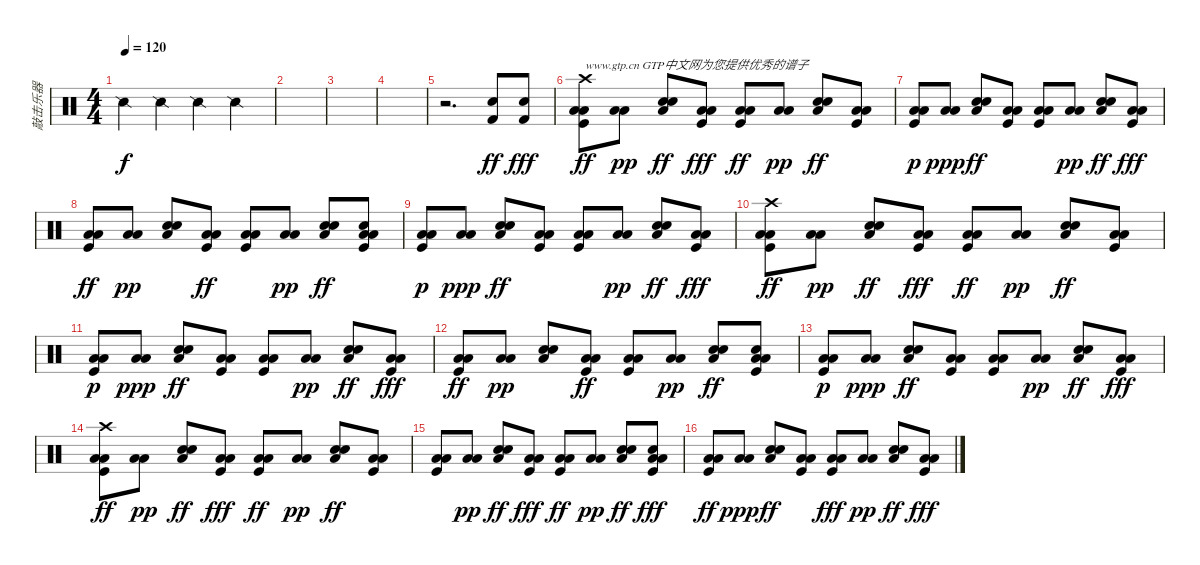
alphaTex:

\track ("敲击乐器" "敲击乐器") {instrument percussion}
\staff {score}
\articulation defaults
\ts (4 4)
\tempo 120
\clef neutral
\ks c "Snare (side stick) 2".4{dy f} "Snare (side stick) 2".4 "Snare (side stick) 2".4 "Snare (side stick) 2".4
|
|
|
|
r.2{d} ("Snare (hit) 2" "Kick (hit) 2").8{dy ff} ("Snare (hit) 2" "Kick (hit) 2").8{dy fff} |
("Crash high (hit)" "Low Tom (hit)" "Low Floor Tom (hit)" "Kick (hit)").8{txt "www.gtp.cn GTP中文网为您提供优秀的谱子" dy ff} ("Low Tom (hit)" "Low Floor Tom (hit)").8{dy pp} ("Snare (hit) 2" "Low Floor Tom (hit)" "Hand Clap (hit)").8{dy ff} ("Low Tom (hit)" "Low Floor Tom (hit)" "Kick (hit)").8{dy fff} ("Low Tom (hit)" "Low Floor Tom (hit)" "Kick (hit)").8{dy ff} ("Low Tom (hit)" "Low Floor Tom (hit)").8{dy pp} ("Low Floor Tom (hit)" "Hand Clap (hit)" "Snare (hit) 2").8{dy ff} ("Low Tom (hit)" "Low Floor Tom (hit)" "Kick (hit)").8 |
("Low Tom (hit)" "Low Floor Tom (hit)" "Kick (hit)").8{dy p} ("Low Floor Tom (hit)" "Low Tom (hit)").8{dy ppp} ("Hand Clap (hit)" "Low Floor Tom (hit)" "Snare (hit) 2").8{dy ff} ("Low Tom (hit)" "Low Floor Tom (hit)" "Kick (hit)").8 ("Low Tom (hit)" "Low Floor Tom (hit)" "Kick (hit)").8 ("Low Tom (hit)" "Low Floor Tom (hit)").8{dy pp} ("Snare (hit) 2" "Low Floor Tom (hit)" "Hand Clap (hit)").8{dy ff} ("Low Tom (hit)" "Low Floor Tom (hit)" "Kick (hit)").8{dy fff} |
("Low Tom (hit)" "Low Floor Tom (hit)" "Kick (hit)").8{dy ff} ("Low Tom (hit)" "Low Floor Tom (hit)").8{dy pp} ("Hand Clap (hit)" "Snare (hit) 2" "Low Floor Tom (hit)").8 ("Low Tom (hit)" "Low Floor Tom (hit)" "Kick (hit)").8{dy ff} ("Low Tom (hit)" "Low Floor Tom (hit)" "Kick (hit)").8 ("Low Floor Tom (hit)" "Low Tom (hit)").8{dy pp} ("Snare (hit) 2" "Low Floor Tom (hit)" "Hand Clap (hit)").8{dy ff} ("Snare (hit) 2" "Low Tom (hit)" "Low Floor Tom (hit)" "Kick (hit)").8 |
("Low Tom (hit)" "Low Floor Tom (hit)" "Kick (hit)").8{dy p} ("Low Floor Tom (hit)" "Low Tom (hit)").8{dy ppp} ("Hand Clap (hit)" "Low Floor Tom (hit)" "Snare (hit) 2").8{dy ff} ("Low Tom (hit)" "Low Floor Tom (hit)" "Kick (hit)").8 ("Low Tom (hit)" "Low Floor Tom (hit)" "Kick (hit)").8 ("Low Tom (hit)" "Low Floor Tom (hit)").8{dy pp} ("Snare (hit) 2" "Low Floor Tom (hit)" "Hand Clap (hit)").8{dy ff} ("Low Tom (hit)" "Low Floor Tom (hit)" "Kick (hit)").8{dy fff} |
("Crash high (hit)" "Low Tom (hit)" "Low Floor Tom (hit)" "Kick (hit)").8{dy ff} ("Low Tom (hit)" "Low Floor Tom (hit)").8{dy pp} ("Snare (hit) 2" "Low Floor Tom (hit)" "Hand Clap (hit)").8{dy ff} ("Low Tom (hit)" "Low Floor Tom (hit)" "Kick (hit)").8{dy fff} ("Low Tom (hit)" "Low Floor Tom (hit)" "Kick (hit)").8{dy ff} ("Low Tom (hit)" "Low Floor Tom (hit)").8{dy pp} ("Low Floor Tom (hit)" "Hand Clap (hit)" "Snare (hit) 2").8{dy ff} ("Low Tom (hit)" "Low Floor Tom (hit)" "Kick (hit)").8 |
("Low Tom (hit)" "Low Floor Tom (hit)" "Kick (hit)").8{dy p} ("Low Floor Tom (hit)" "Low Tom (hit)").8{dy ppp} ("Hand Clap (hit)" "Low Floor Tom (hit)" "Snare (hit) 2").8{dy ff} ("Low Tom (hit)" "Low Floor Tom (hit)" "Kick (hit)").8 ("Low Tom (hit)" "Low Floor Tom (hit)" "Kick (hit)").8 ("Low Tom (hit)" "Low Floor Tom (hit)").8{dy pp} ("Snare (hit) 2" "Low Floor Tom (hit)" "Hand Clap (hit)").8{dy ff} ("Low Tom (hit)" "Low Floor Tom (hit)" "Kick (hit)").8{dy fff} |
("Low Tom (hit)" "Low Floor Tom (hit)" "Kick (hit)").8{dy ff} ("Low Tom (hit)" "Low Floor Tom (hit)").8{dy pp} ("Hand Clap (hit)" "Snare (hit) 2" "Low Floor Tom (hit)").8 ("Low Tom (hit)" "Low Floor Tom (hit)" "Kick (hit)").8{dy ff} ("Low Tom (hit)" "Low Floor Tom (hit)" "Kick (hit)").8 ("Low Floor Tom (hit)" "Low Tom (hit)").8{dy pp} ("Snare (hit) 2" "Low Floor Tom (hit)" "Hand Clap (hit)").8{dy ff} ("Snare (hit) 2" "Low Tom (hit)" "Low Floor Tom (hit)" "Kick (hit)").8 |
("Low Tom (hit)" "Low Floor Tom (hit)" "Kick (hit)").8{dy p} ("Low Floor Tom (hit)" "Low Tom (hit)").8{dy ppp} ("Hand Clap (hit)" "Low Floor Tom (hit)" "Snare (hit) 2").8{dy ff} ("Low Tom (hit)" "Low Floor Tom (hit)" "Kick (hit)").8 ("Low Tom (hit)" "Low Floor Tom (hit)" "Kick (hit)").8 ("Low Tom (hit)" "Low Floor Tom (hit)").8{dy pp} ("Snare (hit) 2" "Low Floor Tom (hit)" "Hand Clap (hit)").8{dy ff} ("Low Tom (hit)" "Low Floor Tom (hit)" "Kick (hit)").8{dy fff} |
("Crash high (hit)" "Low Tom (hit)" "Low Floor Tom (hit)" "Kick (hit)").8{dy ff} ("Low Tom (hit)" "Low Floor Tom (hit)").8{dy pp} ("Snare (hit) 2" "Low Floor Tom (hit)" "Hand Clap (hit)").8{dy ff} ("Low Tom (hit)" "Low Floor Tom (hit)" "Kick (hit)").8{dy fff} ("Low Tom (hit)" "Low Floor Tom (hit)" "Kick (hit)").8{dy ff} ("Low Tom (hit)" "Low Floor Tom (hit)").8{dy pp} ("Low Floor Tom (hit)" "Hand Clap (hit)" "Snare (hit) 2").8{dy ff} ("Low Tom (hit)" "Low Floor Tom (hit)" "Kick (hit)").8 |
("Low Tom (hit)" "Low Floor Tom (hit)" "Kick (hit)").8 ("Low Tom (hit)" "Low Floor Tom (hit)").8{dy pp} ("Snare (hit) 2" "Low Floor Tom (hit)" "Hand Clap (hit)").8{dy ff} ("Low Tom (hit)" "Low Floor Tom (hit)" "Kick (hit)").8{dy fff} ("Low Tom (hit)" "Low Floor Tom (hit)" "Kick (hit)").8{dy ff} ("Low Floor Tom (hit)" "Low Tom (hit)").8{dy pp} ("Snare (hit) 2" "Low Floor Tom (hit)" "Hand Clap (hit)").8{dy ff} ("Snare (hit) 2" "Low Tom (hit)" "Low Floor Tom (hit)" "Kick (hit)").8{dy fff} |
("Low Tom (hit)" "Low Floor Tom (hit)" "Kick (hit)").8{dy ff} ("Low Floor Tom (hit)" "Low Tom (hit)").8{dy ppp} ("Low Floor Tom (hit)" "Hand Clap (hit)" "Snare (hit) 2").8{dy ff} ("Low Tom (hit)" "Low Floor Tom (hit)" "Kick (hit)").8 ("Low Tom (hit)" "Low Floor Tom (hit)" "Kick (hit)").8{dy fff} ("Low Tom (hit)" "Low Floor Tom (hit)").8{dy pp} ("Snare (hit) 2" "Low Floor Tom (hit)" "Hand Clap (hit)").8{dy ff} ("Low Tom (hit)" "Low Floor Tom (hit)" "Kick (hit)").8{dy fff}
